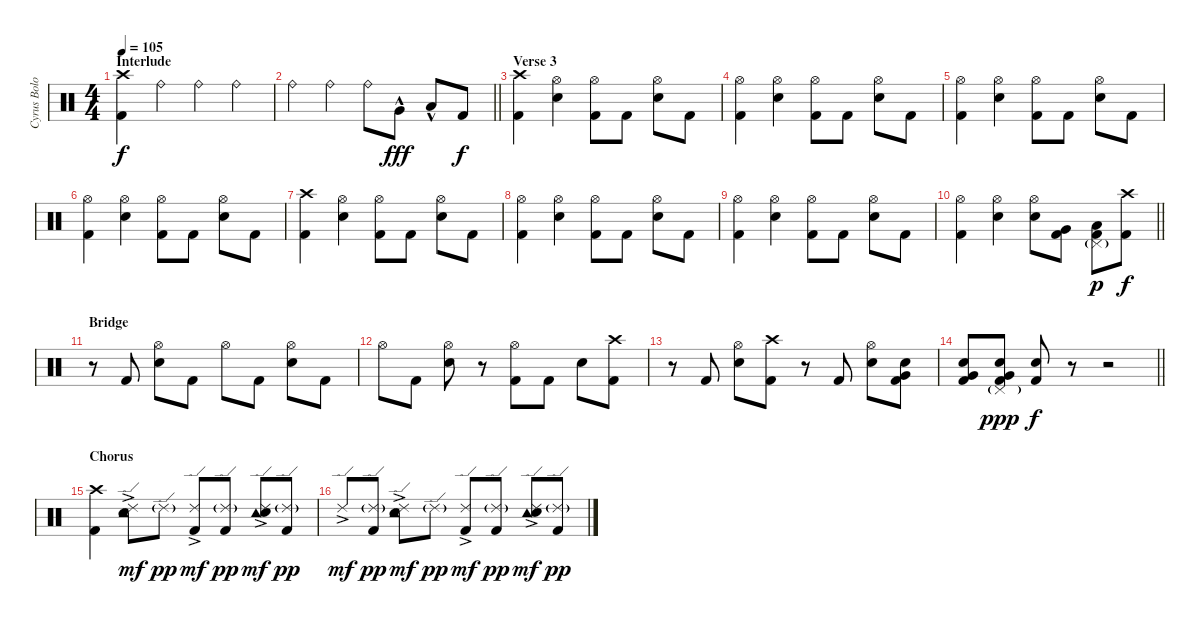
\track ("Cyrus Bolooki" "Cyrus Bolo") {instrument percussion}
\staff {score}
\articulation defaults
\ts (4 4)
\section ("" "Interlude")
\tempo 105
\clef neutral
\ks c
("Crash high (hit)" "Kick (hit) 2").4{dy f} "Ride (bell)".4 "Ride (bell)".4 "Ride (bell)".4 |
\barLineRight lightlight "Ride (bell)".4 "Ride (bell)".4 "Ride (bell)".8 "Very Low Tom (hit)"{hac}.8{dy fff} "Low Floor Tom (hit)"{hac}.8 "Kick (hit) 2".8{dy f}
|
\section ("" "Verse 3")
("Crash high (hit)" "Kick (hit) 2").4 ("Hi-Hat (open)" "Electric Snare (hit)").4 ("Hi-Hat (open)" "Kick (hit) 2").8 "Kick (hit) 2".8 ("Hi-Hat (open)" "Electric Snare (hit)").8 "Kick (hit) 2".8 |
("Hi-Hat (open)" "Kick (hit) 2").4 ("Hi-Hat (open)" "Electric Snare (hit)").4 ("Hi-Hat (open)" "Kick (hit) 2").8 "Kick (hit) 2".8 ("Hi-Hat (open)" "Electric Snare (hit)").8 "Kick (hit) 2".8 |
("Hi-Hat (open)" "Kick (hit) 2").4 ("Hi-Hat (open)" "Electric Snare (hit)").4 ("Hi-Hat (open)" "Kick (hit) 2").8 "Kick (hit) 2".8 ("Hi-Hat (open)" "Electric Snare (hit)").8 "Kick (hit) 2".8 |
("Hi-Hat (open)" "Kick (hit) 2").4 ("Hi-Hat (open)" "Electric Snare (hit)").4 ("Hi-Hat (open)" "Kick (hit) 2").8 "Kick (hit) 2".8 ("Hi-Hat (open)" "Electric Snare (hit)").8 "Kick (hit) 2".8 |
("Crash high (hit)" "Kick (hit) 2").4 ("Hi-Hat (open)" "Electric Snare (hit)").4 ("Hi-Hat (open)" "Kick (hit) 2").8 "Kick (hit) 2".8 ("Hi-Hat (open)" "Electric Snare (hit)").8 "Kick (hit) 2".8 |
("Hi-Hat (open)" "Kick (hit) 2").4 ("Hi-Hat (open)" "Electric Snare (hit)").4 ("Hi-Hat (open)" "Kick (hit) 2").8 "Kick (hit) 2".8 ("Hi-Hat (open)" "Electric Snare (hit)").8 "Kick (hit) 2".8 |
("Hi-Hat (open)" "Kick (hit) 2").4 ("Hi-Hat (open)" "Electric Snare (hit)").4 ("Hi-Hat (open)" "Kick (hit) 2").8 "Kick (hit) 2".8 ("Hi-Hat (open)" "Electric Snare (hit)").8 "Kick (hit) 2".8 |
\barLineRight lightlight
("Hi-Hat (open)" "Kick (hit) 2").4 ("Hi-Hat (open)" "Electric Snare (hit)").4 ("Hi-Hat (open)" "Electric Snare (hit)").8 ("Very Low Tom (hit)" "Kick (hit) 2").8 ("Pedal Hi-Hat (hit)"{g} "Low Floor Tom (hit)" "Kick (hit) 2").8{dy p} ("Crash high (hit)" "Kick (hit) 2").8{dy f} |
\section ("" "Bridge")
r.8 "Kick (hit) 2".8 ("Hi-Hat (open)" "Electric Snare (hit)").8 "Kick (hit) 2".8 "Hi-Hat (open)".8 "Kick (hit) 2".8 ("Hi-Hat (open)" "Electric Snare (hit)").8 "Kick (hit) 2".8 |
"Hi-Hat (open)".8 "Kick (hit) 2".8 ("Hi-Hat (open)" "Electric Snare (hit)").8 r.8 ("Hi-Hat (open)" "Kick (hit) 2").8 "Kick (hit) 2".8 "Electric Snare (hit)".8 ("Crash high (hit)" "Kick (hit) 2").8 |
r.8 "Kick (hit) 2".8 ("Hi-Hat (open)" "Electric Snare (hit)").8 ("Crash high (hit)" "Kick (hit) 2").8 r.8 "Kick (hit) 2".8 ("Hi-Hat (open)" "Electric Snare (hit)").8 ("Very Low Tom (hit)" "Electric Snare (hit)" "Kick (hit) 2").8 |
\barLineRight lightlight
("Very Low Tom (hit)" "Electric Snare (hit)" "Kick (hit) 2").8 ("Pedal Hi-Hat (hit)"{g} "Very Low Tom (hit)" "Electric Snare (hit)" "Kick (hit) 2").8{dy ppp} ("Electric Snare (hit)" "Kick (hit) 2").8{dy f} r.8 r.2 |
\section ("" "Chorus")
("Crash high (hit)" "Kick (hit) 2").4 ("Ride (edge) 2"{ac} "Tambourine (hit)" "Electric Snare (hit)").8{dy mf} "Ride (edge) 2"{g}.8{dy pp} ("Ride (edge) 2"{ac} "Kick (hit) 2").8{dy mf} ("Ride (edge) 2"{g} "Kick (hit) 2").8{dy pp} ("Ride (edge) 2"{ac} "Tambourine (hit)" "Electric Snare (hit)").8{dy mf} ("Ride (edge) 2"{g} "Kick (hit) 2").8{dy pp} |
"Ride (edge) 2"{ac}.8{dy mf} ("Ride (edge) 2"{g} "Kick (hit) 2").8{dy pp} ("Ride (edge) 2"{ac} "Tambourine (hit)" "Electric Snare (hit)").8{dy mf} "Ride (edge) 2"{g}.8{dy pp} ("Ride (edge) 2"{ac} "Kick (hit) 2").8{dy mf} ("Ride (edge) 2"{g} "Kick (hit) 2").8{dy pp} ("Ride (edge) 2"{ac} "Tambourine (hit)" "Electric Snare (hit)").8{dy mf} ("Ride (edge) 2"{g} "Kick (hit) 2").8{dy pp}
